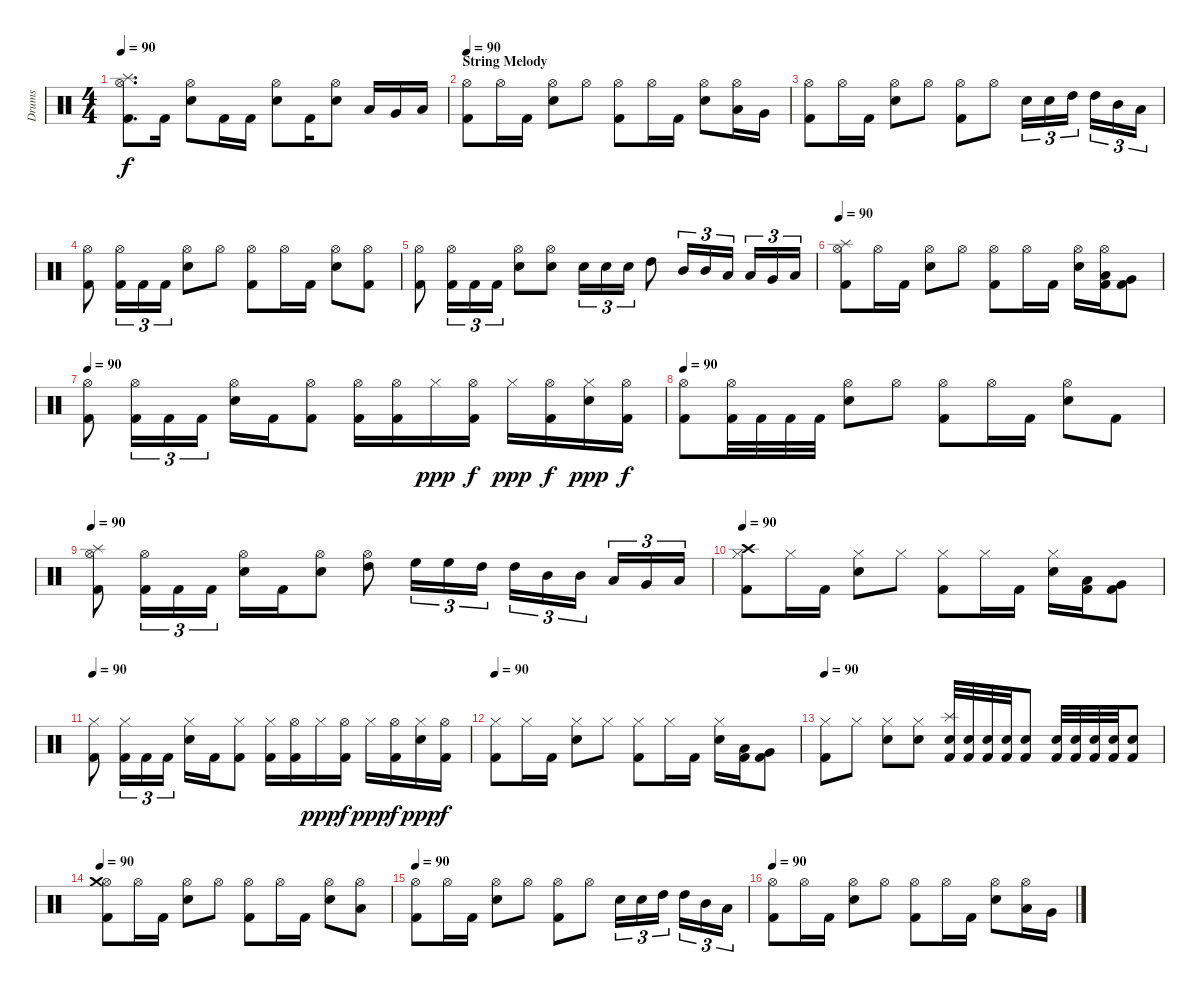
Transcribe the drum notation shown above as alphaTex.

\track ("Drums" "Drums") {instrument percussion}
\staff {score}
\articulation defaults
\ts (4 4)
\tempo 90
\clef neutral
\ks c
("Kick (hit) 2" "Hi-Hat (open)" "Splash (hit)").8{d dy f} "Kick (hit) 2".16 ("Electric Snare (hit)" "Hi-Hat (open)").8 "Kick (hit) 2".16 "Kick (hit) 2".16 ("Electric Snare (hit)" "Hi-Hat (open)").8 "Kick (hit) 2".16 ("Electric Snare (hit)" "Hi-Hat (open)").8 "Low Tom (hit)".16 "Very Low Tom (hit)".16 "Low Floor Tom (hit)".16 |
\section ("" "String Melody")
\tempo 90
("Kick (hit) 2" "Hi-Hat (open)").8 "Hi-Hat (open)".16 "Kick (hit) 2".16 ("Electric Snare (hit)" "Hi-Hat (open)").8 "Hi-Hat (open)".8 ("Kick (hit) 2" "Hi-Hat (open)").8 "Hi-Hat (open)".16 "Kick (hit) 2".16 ("Electric Snare (hit)" "Hi-Hat (open)").8 ("Low Tom (hit)" "Hi-Hat (open)").16 "Very Low Tom (hit)".16 |
("Kick (hit) 2" "Hi-Hat (open)").8 "Hi-Hat (open)".16 "Kick (hit) 2".16 ("Electric Snare (hit)" "Hi-Hat (open)").8 "Hi-Hat (open)".8 ("Kick (hit) 2" "Hi-Hat (open)").8 "Hi-Hat (open)".8 "Electric Snare (hit)".16{tu (3 2)} "Electric Snare (hit)".16{tu (3 2)} "High Tom (hit)".16{tu (3 2)} "High Tom (hit)".16{tu (3 2)} "Mid Tom (hit)".16{tu (3 2)} "Low Tom (hit)".16{tu (3 2)} |
("Kick (hit) 2" "Hi-Hat (open)").8 ("Kick (hit) 2" "Hi-Hat (open)").16{tu (3 2)} "Kick (hit) 2".16{tu (3 2)} "Kick (hit) 2".16{tu (3 2)} ("Electric Snare (hit)" "Hi-Hat (open)").8 "Hi-Hat (open)".8 ("Kick (hit) 2" "Hi-Hat (open)").8 "Hi-Hat (open)".16 "Kick (hit) 2".16 ("Electric Snare (hit)" "Hi-Hat (open)").8 ("Kick (hit) 2" "Hi-Hat (open)").8 |
("Kick (hit) 2" "Hi-Hat (open)").8 ("Kick (hit) 2" "Hi-Hat (open)").16{tu (3 2)} "Kick (hit) 2".16{tu (3 2)} "Kick (hit) 2".16{tu (3 2)} ("Electric Snare (hit)" "Hi-Hat (open)").8 ("Electric Snare (hit)" "Hi-Hat (open)").8 "Electric Snare (hit)".16{tu (3 2)} "Electric Snare (hit)".16{tu (3 2)} "Electric Snare (hit)".16{tu (3 2)} "High Tom (hit)".8 "Mid Tom (hit)".16{tu (3 2)} "Mid Tom (hit)".16{tu (3 2)} "Low Tom (hit)".16{tu (3 2)} "Low Tom (hit)".16{tu (3 2)} "Very Low Tom (hit)".16{tu (3 2)} "Low Floor Tom (hit)".16{tu (3 2)} |
\tempo 90
("Kick (hit) 2" "Hi-Hat (open)" "Splash (hit)").8 "Hi-Hat (open)".16 "Kick (hit) 2".16 ("Electric Snare (hit)" "Hi-Hat (open)").8 "Hi-Hat (open)".8 ("Kick (hit) 2" "Hi-Hat (open)").8 "Hi-Hat (open)".16 "Kick (hit) 2".16 ("Electric Snare (hit)" "Hi-Hat (open)").16 ("Kick (hit) 2" "Low Tom (hit)" "Hi-Hat (open)").16 ("Kick (hit) 2" "Very Low Tom (hit)").8 |
\tempo 90
("Kick (hit) 2" "Hi-Hat (open)").8 ("Kick (hit) 2" "Hi-Hat (open)").16{tu (3 2)} "Kick (hit) 2".16{tu (3 2)} "Kick (hit) 2".16{tu (3 2)} ("Electric Snare (hit)" "Hi-Hat (open)").16 "Kick (hit) 2".16 ("Kick (hit) 2" "Hi-Hat (open)").8 ("Kick (hit) 2" "Hi-Hat (open)").16 ("Kick (hit) 2" "Hi-Hat (open)").16 "Hi-Hat (closed)".16{dy ppp} ("Kick (hit) 2" "Hi-Hat (open)").16{dy f} "Hi-Hat (closed)".16{dy ppp} ("Kick (hit) 2" "Hi-Hat (open)").16{dy f} ("Electric Snare (hit)" "Hi-Hat (closed)").16{dy ppp} ("Kick (hit) 2" "Hi-Hat (open)").16{dy f} |
\tempo 90
("Kick (hit) 2" "Hi-Hat (open)").8 ("Kick (hit) 2" "Hi-Hat (open)").32 "Kick (hit) 2".32 "Kick (hit) 2".32 "Kick (hit) 2".32 ("Electric Snare (hit)" "Hi-Hat (open)").8 "Hi-Hat (open)".8 ("Kick (hit) 2" "Hi-Hat (open)").8 "Hi-Hat (open)".16 "Kick (hit) 2".16 ("Electric Snare (hit)" "Hi-Hat (open)").8 "Kick (hit) 2".8 |
\tempo 90
("Kick (hit) 2" "Hi-Hat (open)" "Splash (hit)").8 ("Kick (hit) 2" "Hi-Hat (open)").16{tu (3 2)} "Kick (hit) 2".16{tu (3 2)} "Kick (hit) 2".16{tu (3 2)} ("Electric Snare (hit)" "Hi-Hat (open)").16 "Kick (hit) 2".16 ("Electric Snare (hit)" "Hi-Hat (open)").8 ("High Tom (hit)" "Hi-Hat (open)").8 "High Floor Tom (hit)".16{tu (3 2)} "High Floor Tom (hit)".16{tu (3 2)} "High Tom (hit)".16{tu (3 2)} "High Tom (hit)".16{tu (3 2)} "Mid Tom (hit)".16{tu (3 2)} "Mid Tom (hit)".16{tu (3 2)} "Low Tom (hit)".16{tu (3 2)} "Very Low Tom (hit)".16{tu (3 2)} "Low Floor Tom (hit)".16{tu (3 2)} |
\tempo 90
("Kick (hit) 2" "Hi-Hat (closed)" "Crash high (hit)").8 "Hi-Hat (closed)".16 "Kick (hit) 2".16 ("Electric Snare (hit)" "Hi-Hat (closed)").8 "Hi-Hat (closed)".8 ("Kick (hit) 2" "Hi-Hat (closed)").8 "Hi-Hat (closed)".16 "Kick (hit) 2".16 ("Electric Snare (hit)" "Hi-Hat (closed)").16 ("Kick (hit) 2" "Low Tom (hit)").16 ("Kick (hit) 2" "Very Low Tom (hit)").8 |
\tempo 90
("Kick (hit) 2" "Hi-Hat (closed)").8 ("Kick (hit) 2" "Hi-Hat (closed)").16{tu (3 2)} "Kick (hit) 2".16{tu (3 2)} "Kick (hit) 2".16{tu (3 2)} ("Electric Snare (hit)" "Hi-Hat (closed)").16 "Kick (hit) 2".16 ("Kick (hit) 2" "Hi-Hat (closed)").8 ("Kick (hit) 2" "Hi-Hat (closed)").16 ("Kick (hit) 2" "Hi-Hat (open)").16 "Hi-Hat (closed)".16{dy ppp} ("Kick (hit) 2" "Hi-Hat (open)").16{dy f} "Hi-Hat (closed)".16{dy ppp} ("Kick (hit) 2" "Hi-Hat (open)").16{dy f} ("Electric Snare (hit)" "Hi-Hat (closed)").16{dy ppp} ("Kick (hit) 2" "Hi-Hat (open)").16{dy f} |
\tempo 90
("Kick (hit) 2" "Hi-Hat (closed)").8 "Hi-Hat (closed)".16 "Kick (hit) 2".16 ("Electric Snare (hit)" "Hi-Hat (closed)").8 "Hi-Hat (closed)".8 ("Kick (hit) 2" "Hi-Hat (closed)").8 "Hi-Hat (closed)".16 "Kick (hit) 2".16 ("Electric Snare (hit)" "Hi-Hat (closed)").16 ("Kick (hit) 2" "Low Tom (hit)").16 ("Kick (hit) 2" "Very Low Tom (hit)").8 |
\tempo 90
("Kick (hit) 2" "Hi-Hat (closed)").8 "Hi-Hat (closed)".8 ("Electric Snare (hit)" "Hi-Hat (closed)").8 ("Electric Snare (hit)" "Hi-Hat (closed)").8 ("Kick (hit) 2" "Electric Snare (hit)" "Splash (hit)").32 ("Kick (hit) 2" "Electric Snare (hit)").32 ("Kick (hit) 2" "Electric Snare (hit)").32 ("Kick (hit) 2" "Electric Snare (hit)").32 ("Kick (hit) 2" "Electric Snare (hit)").8 ("Kick (hit) 2" "Electric Snare (hit)").32 ("Kick (hit) 2" "Electric Snare (hit)").32 ("Kick (hit) 2" "Electric Snare (hit)").32 ("Kick (hit) 2" "Electric Snare (hit)").32 ("Kick (hit) 2" "Electric Snare (hit)").8 |
\section ("" "")
\tempo 90
("Kick (hit) 2" "Hi-Hat (open)" "Crash medium (hit)").8 "Hi-Hat (open)".16 "Kick (hit) 2".16 ("Electric Snare (hit)" "Hi-Hat (open)").8 "Hi-Hat (open)".8 ("Kick (hit) 2" "Hi-Hat (open)").8 "Hi-Hat (open)".16 "Kick (hit) 2".16 ("Electric Snare (hit)" "Hi-Hat (open)").8 ("Low Tom (hit)" "Hi-Hat (open)").8 |
\tempo 90
("Kick (hit) 2" "Hi-Hat (open)").8 "Hi-Hat (open)".16 "Kick (hit) 2".16 ("Electric Snare (hit)" "Hi-Hat (open)").8 "Hi-Hat (open)".8 ("Kick (hit) 2" "Hi-Hat (open)").8 "Hi-Hat (open)".8 "Electric Snare (hit)".16{tu (3 2)} "Electric Snare (hit)".16{tu (3 2)} "High Tom (hit)".16{tu (3 2)} "High Tom (hit)".16{tu (3 2)} "Mid Tom (hit)".16{tu (3 2)} "Low Tom (hit)".16{tu (3 2)} |
\tempo 90
("Kick (hit) 2" "Hi-Hat (open)").8 "Hi-Hat (open)".16 "Kick (hit) 2".16 ("Electric Snare (hit)" "Hi-Hat (open)").8 "Hi-Hat (open)".8 ("Kick (hit) 2" "Hi-Hat (open)").8 "Hi-Hat (open)".16 "Kick (hit) 2".16 ("Electric Snare (hit)" "Hi-Hat (open)").8 ("Low Tom (hit)" "Hi-Hat (open)").16 "Very Low Tom (hit)".16
